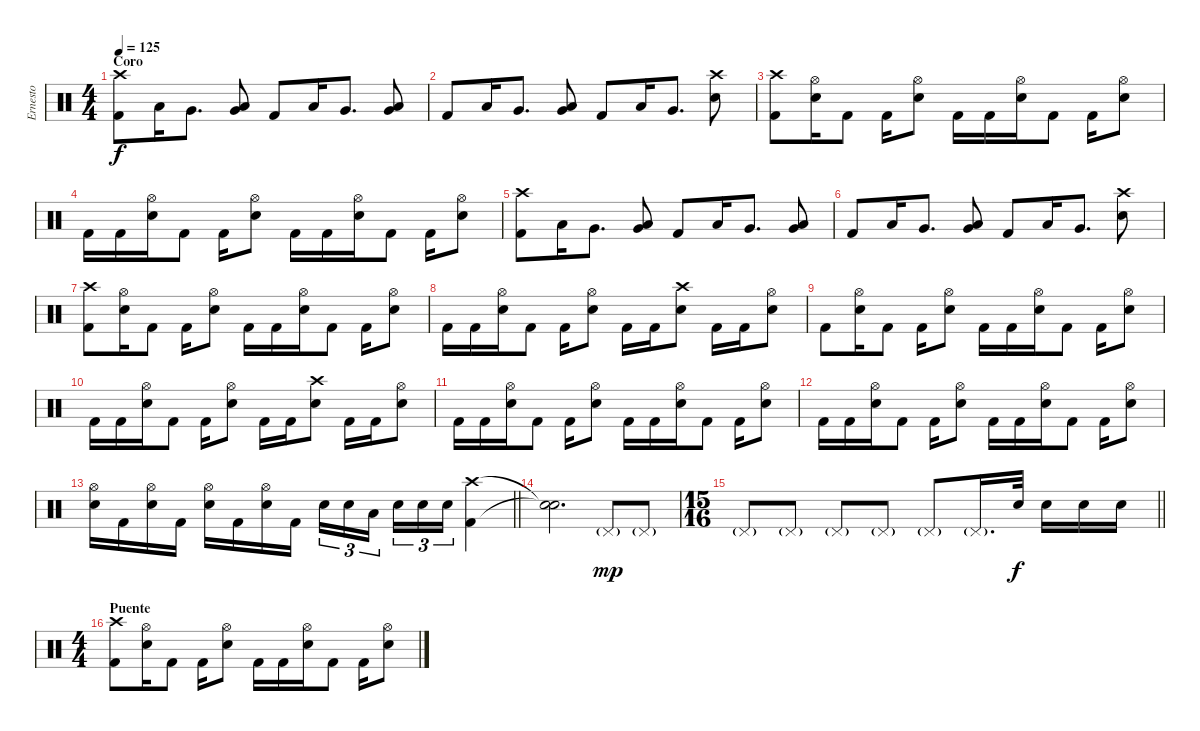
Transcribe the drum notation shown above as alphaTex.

\track ("Ernesto" "Ernesto") {instrument percussion}
\staff {score}
\articulation defaults
\ts (4 4)
\section ("" "Coro")
\tempo 125
\clef neutral
\ks c
("Crash high (hit)" "Kick (hit) 2").8{dy f} "Low Tom (hit)".16 "Very Low Tom (hit)".8{d} ("Low Tom (hit)" "Very Low Tom (hit)").8 "Kick (hit) 2".8 "Low Tom (hit)".16 "Very Low Tom (hit)".8{d} ("Low Tom (hit)" "Very Low Tom (hit)").8 |
"Kick (hit) 2".8 "Low Tom (hit)".16 "Very Low Tom (hit)".8{d} ("Low Tom (hit)" "Very Low Tom (hit)").8 "Kick (hit) 2".8 "Low Tom (hit)".16 "Very Low Tom (hit)".8{d} ("Crash high (hit)" "Electric Snare (hit)").8 |
("Crash high (hit)" "Kick (hit) 2").8 ("Hi-Hat (open)" "Electric Snare (hit)").16 "Kick (hit) 2".8 "Kick (hit) 2".16 ("Hi-Hat (open)" "Electric Snare (hit)").8 "Kick (hit) 2".16 "Kick (hit) 2".16 ("Hi-Hat (open)" "Electric Snare (hit)").16 "Kick (hit) 2".8 "Kick (hit) 2".16 ("Hi-Hat (open)" "Electric Snare (hit)").8 |
"Kick (hit) 2".16 "Kick (hit) 2".16 ("Hi-Hat (open)" "Electric Snare (hit)").16 "Kick (hit) 2".8 "Kick (hit) 2".16 ("Hi-Hat (open)" "Electric Snare (hit)").8 "Kick (hit) 2".16 "Kick (hit) 2".16 ("Hi-Hat (open)" "Electric Snare (hit)").16 "Kick (hit) 2".8 "Kick (hit) 2".16 ("Hi-Hat (open)" "Electric Snare (hit)").8 |
("Crash high (hit)" "Kick (hit) 2").8 "Low Tom (hit)".16 "Very Low Tom (hit)".8{d} ("Low Tom (hit)" "Very Low Tom (hit)").8 "Kick (hit) 2".8 "Low Tom (hit)".16 "Very Low Tom (hit)".8{d} ("Low Tom (hit)" "Very Low Tom (hit)").8 |
"Kick (hit) 2".8 "Low Tom (hit)".16 "Very Low Tom (hit)".8{d} ("Low Tom (hit)" "Very Low Tom (hit)").8 "Kick (hit) 2".8 "Low Tom (hit)".16 "Very Low Tom (hit)".8{d} ("Crash high (hit)" "Electric Snare (hit)").8 |
("Crash high (hit)" "Kick (hit) 2").8 ("Hi-Hat (open)" "Electric Snare (hit)").16 "Kick (hit) 2".8 "Kick (hit) 2".16 ("Hi-Hat (open)" "Electric Snare (hit)").8 "Kick (hit) 2".16 "Kick (hit) 2".16 ("Hi-Hat (open)" "Electric Snare (hit)").16 "Kick (hit) 2".8 "Kick (hit) 2".16 ("Hi-Hat (open)" "Electric Snare (hit)").8 |
"Kick (hit) 2".16 "Kick (hit) 2".16 ("Hi-Hat (open)" "Electric Snare (hit)").16 "Kick (hit) 2".8 "Kick (hit) 2".16 ("Hi-Hat (open)" "Electric Snare (hit)").8 "Kick (hit) 2".16 "Kick (hit) 2".16 ("Crash high (hit)" "Electric Snare (hit)").8 "Kick (hit) 2".16 "Kick (hit) 2".16 ("Hi-Hat (open)" "Electric Snare (hit)").8 |
"Kick (hit) 2".8 ("Hi-Hat (open)" "Electric Snare (hit)").16 "Kick (hit) 2".8 "Kick (hit) 2".16 ("Hi-Hat (open)" "Electric Snare (hit)").8 "Kick (hit) 2".16 "Kick (hit) 2".16 ("Hi-Hat (open)" "Electric Snare (hit)").16 "Kick (hit) 2".8 "Kick (hit) 2".16 ("Hi-Hat (open)" "Electric Snare (hit)").8 |
"Kick (hit) 2".16 "Kick (hit) 2".16 ("Hi-Hat (open)" "Electric Snare (hit)").16 "Kick (hit) 2".8 "Kick (hit) 2".16 ("Hi-Hat (open)" "Electric Snare (hit)").8 "Kick (hit) 2".16 "Kick (hit) 2".16 ("Crash high (hit)" "Electric Snare (hit)").8 "Kick (hit) 2".16 "Kick (hit) 2".16 ("Hi-Hat (open)" "Electric Snare (hit)").8 |
"Kick (hit) 2".16 "Kick (hit) 2".16 ("Hi-Hat (open)" "Electric Snare (hit)").16 "Kick (hit) 2".8 "Kick (hit) 2".16 ("Hi-Hat (open)" "Electric Snare (hit)").8 "Kick (hit) 2".16 "Kick (hit) 2".16 ("Hi-Hat (open)" "Electric Snare (hit)").16 "Kick (hit) 2".8 "Kick (hit) 2".16 ("Hi-Hat (open)" "Electric Snare (hit)").8 |
"Kick (hit) 2".16 "Kick (hit) 2".16 ("Hi-Hat (open)" "Electric Snare (hit)").16 "Kick (hit) 2".8 "Kick (hit) 2".16 ("Hi-Hat (open)" "Electric Snare (hit)").8 "Kick (hit) 2".16 "Kick (hit) 2".16 ("Hi-Hat (open)" "Electric Snare (hit)").16 "Kick (hit) 2".8 "Kick (hit) 2".16 ("Hi-Hat (open)" "Electric Snare (hit)").8 |
\barLineRight lightlight
("Hi-Hat (open)" "Electric Snare (hit)").16 "Kick (hit) 2".16 ("Hi-Hat (open)" "Electric Snare (hit)").16 "Kick (hit) 2".16 ("Hi-Hat (open)" "Electric Snare (hit)").16 "Kick (hit) 2".16 ("Hi-Hat (open)" "Electric Snare (hit)").16 "Kick (hit) 2".16 "Electric Snare (hit)".16{tu (3 2)} "Electric Snare (hit)".16{tu (3 2)} "Low Tom (hit)".16{tu (3 2) beam splitsecondary} "Electric Snare (hit)".16{tu (3 2)} "Electric Snare (hit)".16{tu (3 2)} "Electric Snare (hit)".16{tu (3 2)} ("Crash high (hit)" "Kick (hit) 2").4 |
("Snare (hit)"{t} "Snare (hit)"{t}).2{d} "Pedal Hi-Hat (hit)"{g}.8{dy mp} "Pedal Hi-Hat (hit)"{g}.8 |
\ts (15 16)
\barLineRight lightlight "Pedal Hi-Hat (hit)"{g}.8 "Pedal Hi-Hat (hit)"{g}.8 "Pedal Hi-Hat (hit)"{g}.8 "Pedal Hi-Hat (hit)"{g}.8 "Pedal Hi-Hat (hit)"{g}.8 "Pedal Hi-Hat (hit)"{g}.16{d} "Electric Snare (hit)".32{dy f} "Electric Snare (hit)".16 "Electric Snare (hit)".16 "Electric Snare (hit)".16
|
\ts (4 4)
\section ("" "Puente")
("Crash high (hit)" "Kick (hit) 2").8 ("Hi-Hat (open)" "Electric Snare (hit)").16 "Kick (hit) 2".8 "Kick (hit) 2".16 ("Hi-Hat (open)" "Electric Snare (hit)").8 "Kick (hit) 2".16 "Kick (hit) 2".16 ("Hi-Hat (open)" "Electric Snare (hit)").16 "Kick (hit) 2".8 "Kick (hit) 2".16 ("Hi-Hat (open)" "Electric Snare (hit)").8
